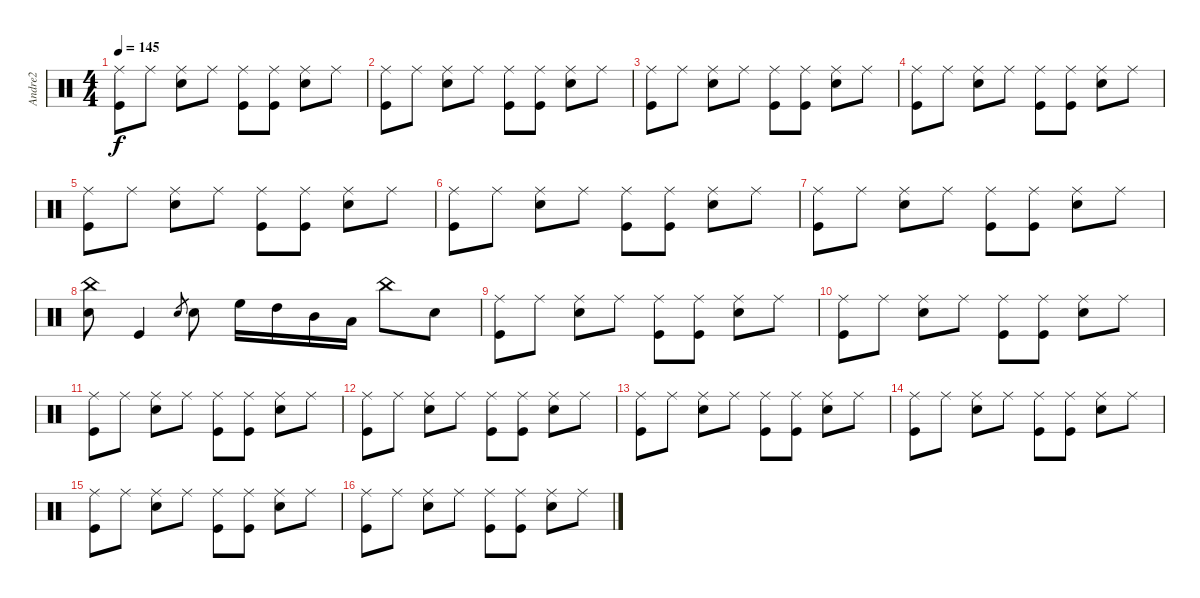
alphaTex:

\track ("Andre2" "Andre2") {instrument percussion}
\staff {score}
\articulation defaults
\ts (4 4)
\tempo 145
\clef neutral
\ks c
("Kick (hit)" "Ride (middle)").8{dy f} "Ride (middle)".8 ("Ride (middle)" "Snare (hit) 2").8 "Ride (middle)".8 ("Kick (hit)" "Ride (middle)").8 ("Kick (hit)" "Ride (middle)").8 ("Ride (middle)" "Snare (hit) 2").8 "Ride (middle)".8 |
("Kick (hit)" "Ride (middle)").8 "Ride (middle)".8 ("Ride (middle)" "Snare (hit) 2").8 "Ride (middle)".8 ("Kick (hit)" "Ride (middle)").8 ("Kick (hit)" "Ride (middle)").8 ("Ride (middle)" "Snare (hit) 2").8 "Ride (middle)".8 |
("Kick (hit)" "Ride (middle)").8 "Ride (middle)".8 ("Ride (middle)" "Snare (hit) 2").8 "Ride (middle)".8 ("Kick (hit)" "Ride (middle)").8 ("Kick (hit)" "Ride (middle)").8 ("Ride (middle)" "Snare (hit) 2").8 "Ride (middle)".8 |
("Kick (hit)" "Ride (middle)").8 "Ride (middle)".8 ("Ride (middle)" "Snare (hit) 2").8 "Ride (middle)".8 ("Kick (hit)" "Ride (middle)").8 ("Kick (hit)" "Ride (middle)").8 ("Ride (middle)" "Snare (hit) 2").8 "Ride (middle)".8 |
("Kick (hit)" "Ride (middle)").8 "Ride (middle)".8 ("Ride (middle)" "Snare (hit) 2").8 "Ride (middle)".8 ("Kick (hit)" "Ride (middle)").8 ("Kick (hit)" "Ride (middle)").8 ("Ride (middle)" "Snare (hit) 2").8 "Ride (middle)".8 |
("Kick (hit)" "Ride (middle)").8 "Ride (middle)".8 ("Ride (middle)" "Snare (hit) 2").8 "Ride (middle)".8 ("Kick (hit)" "Ride (middle)").8 ("Kick (hit)" "Ride (middle)").8 ("Ride (middle)" "Snare (hit) 2").8 "Ride (middle)".8 |
("Kick (hit)" "Ride (middle)").8 "Ride (middle)".8 ("Ride (middle)" "Snare (hit) 2").8 "Ride (middle)".8 ("Kick (hit)" "Ride (middle)").8 ("Kick (hit)" "Ride (middle)").8 ("Ride (middle)" "Snare (hit) 2").8 "Ride (middle)".8 |
("China (hit)" "Snare (hit) 2").8 "Kick (hit)".4 "Snare (hit) 2".8{gr} "Snare (hit) 2".8 "High Floor Tom (hit)".16 "High Tom (hit)".16 "Mid Tom (hit)".16 "Low Tom (hit)".16 "China (hit)".8 "Snare (hit) 2".8 |
("Kick (hit)" "Ride (middle)").8 "Ride (middle)".8 ("Ride (middle)" "Snare (hit) 2").8 "Ride (middle)".8 ("Kick (hit)" "Ride (middle)").8 ("Kick (hit)" "Ride (middle)").8 ("Ride (middle)" "Snare (hit) 2").8 "Ride (middle)".8 |
("Kick (hit)" "Ride (middle)").8 "Ride (middle)".8 ("Ride (middle)" "Snare (hit) 2").8 "Ride (middle)".8 ("Kick (hit)" "Ride (middle)").8 ("Kick (hit)" "Ride (middle)").8 ("Ride (middle)" "Snare (hit) 2").8 "Ride (middle)".8 |
("Kick (hit)" "Ride (middle)").8 "Ride (middle)".8 ("Ride (middle)" "Snare (hit) 2").8 "Ride (middle)".8 ("Kick (hit)" "Ride (middle)").8 ("Kick (hit)" "Ride (middle)").8 ("Ride (middle)" "Snare (hit) 2").8 "Ride (middle)".8 |
("Kick (hit)" "Ride (middle)").8 "Ride (middle)".8 ("Ride (middle)" "Snare (hit) 2").8 "Ride (middle)".8 ("Kick (hit)" "Ride (middle)").8 ("Kick (hit)" "Ride (middle)").8 ("Ride (middle)" "Snare (hit) 2").8 "Ride (middle)".8 |
("Kick (hit)" "Ride (middle)").8 "Ride (middle)".8 ("Ride (middle)" "Snare (hit) 2").8 "Ride (middle)".8 ("Kick (hit)" "Ride (middle)").8 ("Kick (hit)" "Ride (middle)").8 ("Ride (middle)" "Snare (hit) 2").8 "Ride (middle)".8 |
("Kick (hit)" "Ride (middle)").8 "Ride (middle)".8 ("Ride (middle)" "Snare (hit) 2").8 "Ride (middle)".8 ("Kick (hit)" "Ride (middle)").8 ("Kick (hit)" "Ride (middle)").8 ("Ride (middle)" "Snare (hit) 2").8 "Ride (middle)".8 |
("Kick (hit)" "Ride (middle)").8 "Ride (middle)".8 ("Ride (middle)" "Snare (hit) 2").8 "Ride (middle)".8 ("Kick (hit)" "Ride (middle)").8 ("Kick (hit)" "Ride (middle)").8 ("Ride (middle)" "Snare (hit) 2").8 "Ride (middle)".8 |
("Kick (hit)" "Ride (middle)").8 "Ride (middle)".8 ("Ride (middle)" "Snare (hit) 2").8 "Ride (middle)".8 ("Kick (hit)" "Ride (middle)").8 ("Kick (hit)" "Ride (middle)").8 ("Ride (middle)" "Snare (hit) 2").8 "Ride (middle)".8
